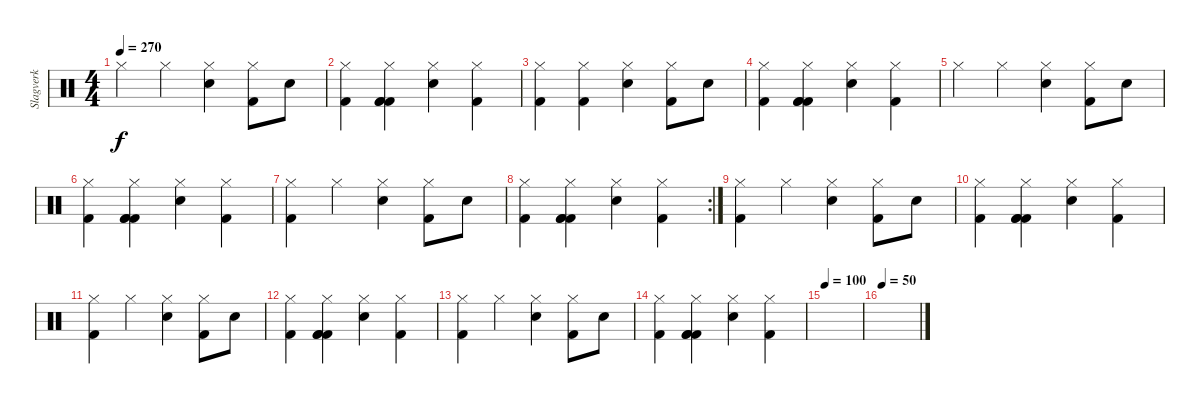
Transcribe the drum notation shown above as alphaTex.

\track ("Slagverk" "Slagverk") {instrument percussion}
\staff {score}
\articulation defaults
\ts (4 4)
\tempo 270
\clef neutral
\ks c "Hi-Hat (closed)".4{dy f} "Hi-Hat (closed)".4
("Hi-Hat (closed)" "Electric Snare (hit)").4 ("Hi-Hat (closed)" "Kick (hit) 2").8 "Electric Snare (hit)".8 |
("Hi-Hat (closed)" "Kick (hit) 2").4 ("Hi-Hat (closed)" "Kick (hit) 2" "Kick (hit) 2" "Kick (hit) 2").4 ("Hi-Hat (closed)" "Electric Snare (hit)").4 ("Hi-Hat (closed)" "Kick (hit) 2").4 |
("Hi-Hat (closed)" "Kick (hit) 2").4 ("Hi-Hat (closed)" "Kick (hit) 2").4 ("Hi-Hat (closed)" "Electric Snare (hit)").4 ("Hi-Hat (closed)" "Kick (hit) 2").8 "Electric Snare (hit)".8 |
("Hi-Hat (closed)" "Kick (hit) 2").4 ("Hi-Hat (closed)" "Kick (hit) 2" "Kick (hit) 2" "Kick (hit) 2").4 ("Hi-Hat (closed)" "Electric Snare (hit)").4 ("Hi-Hat (closed)" "Kick (hit) 2").4 |
"Hi-Hat (closed)".4 "Hi-Hat (closed)".4 ("Hi-Hat (closed)" "Electric Snare (hit)").4 ("Hi-Hat (closed)" "Kick (hit) 2").8 "Electric Snare (hit)".8 |
("Hi-Hat (closed)" "Kick (hit) 2").4 ("Hi-Hat (closed)" "Kick (hit) 2" "Kick (hit) 2" "Kick (hit) 2").4 ("Hi-Hat (closed)" "Electric Snare (hit)").4 ("Hi-Hat (closed)" "Kick (hit) 2").4 |
("Hi-Hat (closed)" "Kick (hit) 2").4 "Hi-Hat (closed)".4 ("Hi-Hat (closed)" "Electric Snare (hit)").4 ("Hi-Hat (closed)" "Kick (hit) 2").8 "Electric Snare (hit)".8 |
\rc 2
("Hi-Hat (closed)" "Kick (hit) 2").4 ("Hi-Hat (closed)" "Kick (hit) 2" "Kick (hit) 2" "Kick (hit) 2").4 ("Hi-Hat (closed)" "Electric Snare (hit)").4 ("Hi-Hat (closed)" "Kick (hit) 2").4 |
("Hi-Hat (closed)" "Kick (hit) 2").4 "Hi-Hat (closed)".4 ("Hi-Hat (closed)" "Electric Snare (hit)").4 ("Hi-Hat (closed)" "Kick (hit) 2").8 "Electric Snare (hit)".8 |
("Hi-Hat (closed)" "Kick (hit) 2").4 ("Hi-Hat (closed)" "Kick (hit) 2" "Kick (hit) 2" "Kick (hit) 2").4 ("Hi-Hat (closed)" "Electric Snare (hit)").4 ("Hi-Hat (closed)" "Kick (hit) 2").4 |
("Hi-Hat (closed)" "Kick (hit) 2").4 "Hi-Hat (closed)".4 ("Hi-Hat (closed)" "Electric Snare (hit)").4 ("Hi-Hat (closed)" "Kick (hit) 2").8 "Electric Snare (hit)".8 |
("Hi-Hat (closed)" "Kick (hit) 2").4 ("Hi-Hat (closed)" "Kick (hit) 2" "Kick (hit) 2" "Kick (hit) 2").4 ("Hi-Hat (closed)" "Electric Snare (hit)").4 ("Hi-Hat (closed)" "Kick (hit) 2").4 |
("Hi-Hat (closed)" "Kick (hit) 2").4 "Hi-Hat (closed)".4 ("Hi-Hat (closed)" "Electric Snare (hit)").4 ("Hi-Hat (closed)" "Kick (hit) 2").8 "Electric Snare (hit)".8 |
("Hi-Hat (closed)" "Kick (hit) 2").4 ("Hi-Hat (closed)" "Kick (hit) 2" "Kick (hit) 2" "Kick (hit) 2").4 ("Hi-Hat (closed)" "Electric Snare (hit)").4 ("Hi-Hat (closed)" "Kick (hit) 2").4 |
\tempo 100
|
\tempo 100
\tempo 50
